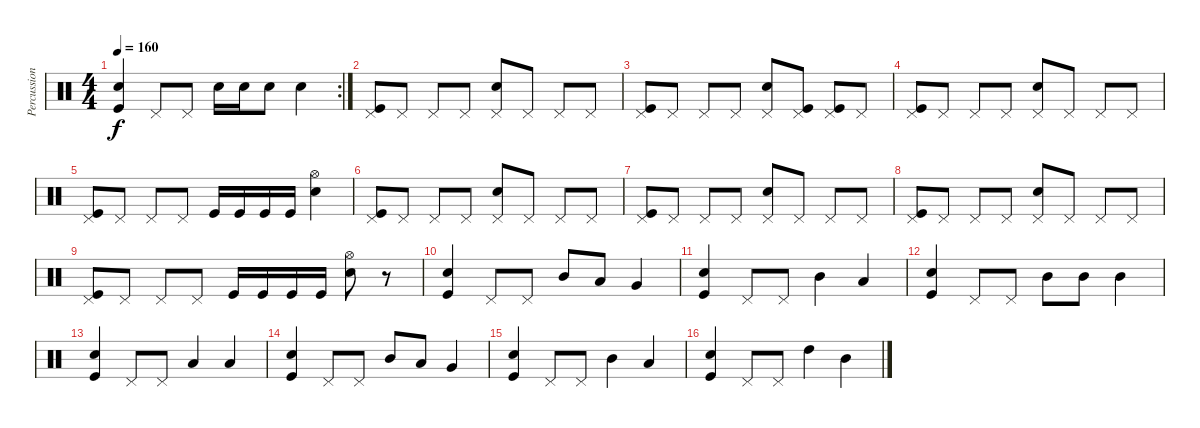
\track ("Percussion" "Percussion") {instrument percussion}
\staff {score}
\articulation defaults
\rc 2
\ts (4 4)
\tempo 160
\clef neutral
\ks c
("Electric Snare (hit)" "Kick (hit)").4{dy f} "Pedal Hi-Hat (hit)".8 "Pedal Hi-Hat (hit)".8 "Electric Snare (hit)".16 "Electric Snare (hit)".16 "Electric Snare (hit)".8 "Electric Snare (hit)".4 |
("Pedal Hi-Hat (hit)" "Kick (hit)").8 "Pedal Hi-Hat (hit)".8 "Pedal Hi-Hat (hit)".8 "Pedal Hi-Hat (hit)".8 ("Pedal Hi-Hat (hit)" "Electric Snare (hit)").8 "Pedal Hi-Hat (hit)".8 "Pedal Hi-Hat (hit)".8 "Pedal Hi-Hat (hit)".8 |
("Pedal Hi-Hat (hit)" "Kick (hit)").8 "Pedal Hi-Hat (hit)".8 "Pedal Hi-Hat (hit)".8 "Pedal Hi-Hat (hit)".8 ("Pedal Hi-Hat (hit)" "Electric Snare (hit)").8 ("Pedal Hi-Hat (hit)" "Kick (hit)").8 ("Pedal Hi-Hat (hit)" "Kick (hit)").8 "Pedal Hi-Hat (hit)".8 |
("Pedal Hi-Hat (hit)" "Kick (hit)").8 "Pedal Hi-Hat (hit)".8 "Pedal Hi-Hat (hit)".8 "Pedal Hi-Hat (hit)".8 ("Pedal Hi-Hat (hit)" "Electric Snare (hit)").8 "Pedal Hi-Hat (hit)".8 "Pedal Hi-Hat (hit)".8 "Pedal Hi-Hat (hit)".8 |
("Pedal Hi-Hat (hit)" "Kick (hit)").8 "Pedal Hi-Hat (hit)".8 "Pedal Hi-Hat (hit)".8 "Pedal Hi-Hat (hit)".8 "Kick (hit)".16 "Kick (hit)".16 "Kick (hit)".16 "Kick (hit)".16 ("Hi-Hat (open)" "Electric Snare (hit)").4 |
("Pedal Hi-Hat (hit)" "Kick (hit)").8 "Pedal Hi-Hat (hit)".8 "Pedal Hi-Hat (hit)".8 "Pedal Hi-Hat (hit)".8 ("Pedal Hi-Hat (hit)" "Electric Snare (hit)").8 "Pedal Hi-Hat (hit)".8 "Pedal Hi-Hat (hit)".8 "Pedal Hi-Hat (hit)".8 |
("Pedal Hi-Hat (hit)" "Kick (hit)").8 "Pedal Hi-Hat (hit)".8 "Pedal Hi-Hat (hit)".8 "Pedal Hi-Hat (hit)".8 ("Pedal Hi-Hat (hit)" "Electric Snare (hit)").8 "Pedal Hi-Hat (hit)".8 "Pedal Hi-Hat (hit)".8 "Pedal Hi-Hat (hit)".8 |
("Pedal Hi-Hat (hit)" "Kick (hit)").8 "Pedal Hi-Hat (hit)".8 "Pedal Hi-Hat (hit)".8 "Pedal Hi-Hat (hit)".8 ("Pedal Hi-Hat (hit)" "Electric Snare (hit)").8 "Pedal Hi-Hat (hit)".8 "Pedal Hi-Hat (hit)".8 "Pedal Hi-Hat (hit)".8 |
("Pedal Hi-Hat (hit)" "Kick (hit)").8 "Pedal Hi-Hat (hit)".8 "Pedal Hi-Hat (hit)".8 "Pedal Hi-Hat (hit)".8 "Kick (hit)".16 "Kick (hit)".16 "Kick (hit)".16 "Kick (hit)".16 ("Hi-Hat (open)" "Electric Snare (hit)").8 r.8 |
("Electric Snare (hit)" "Kick (hit)").4 "Pedal Hi-Hat (hit)".8 "Pedal Hi-Hat (hit)".8 "Mid Tom (hit)".8 "Low Tom (hit)".8 "Very Low Tom (hit)".4 |
("Electric Snare (hit)" "Kick (hit)").4 "Pedal Hi-Hat (hit)".8 "Pedal Hi-Hat (hit)".8 "Mid Tom (hit)".4 "Low Tom (hit)".4 |
("Electric Snare (hit)" "Kick (hit)").4 "Pedal Hi-Hat (hit)".8 "Pedal Hi-Hat (hit)".8 "Mid Tom (hit)".8 "Mid Tom (hit)".8 "Mid Tom (hit)".4 |
("Electric Snare (hit)" "Kick (hit)").4 "Pedal Hi-Hat (hit)".8 "Pedal Hi-Hat (hit)".8 "Low Tom (hit)".4 "Low Tom (hit)".4 |
("Electric Snare (hit)" "Kick (hit)").4 "Pedal Hi-Hat (hit)".8 "Pedal Hi-Hat (hit)".8 "Mid Tom (hit)".8 "Low Tom (hit)".8 "Very Low Tom (hit)".4 |
("Electric Snare (hit)" "Kick (hit)").4 "Pedal Hi-Hat (hit)".8 "Pedal Hi-Hat (hit)".8 "Mid Tom (hit)".4 "Low Tom (hit)".4 |
("Electric Snare (hit)" "Kick (hit)").4 "Pedal Hi-Hat (hit)".8 "Pedal Hi-Hat (hit)".8 "High Tom (hit)".4 "Mid Tom (hit)".4
